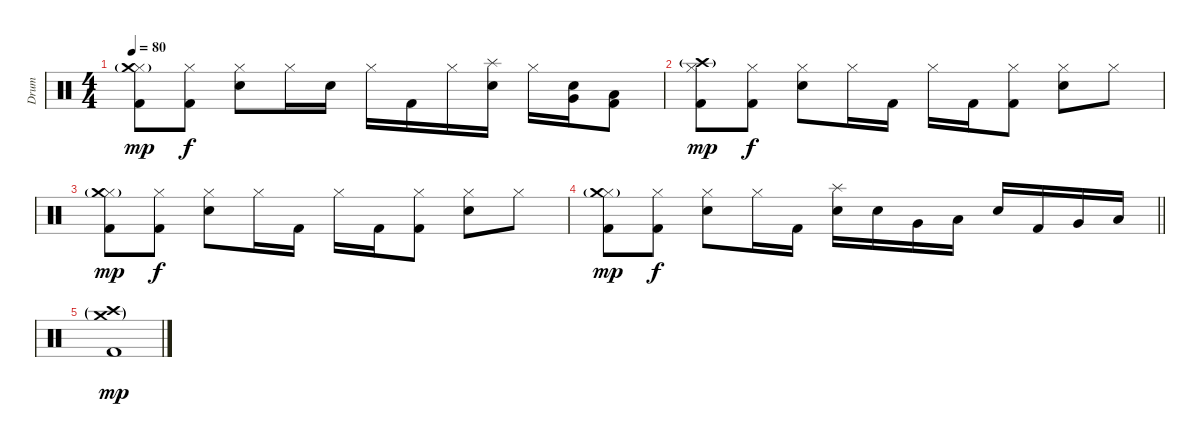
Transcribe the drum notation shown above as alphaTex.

\track ("Drum" "Drum") {instrument percussion}
\staff {score}
\articulation defaults
\ts (4 4)
\tempo 80
\clef neutral
\ks c
("Hi-Hat (closed)" "Kick (hit) 2" "Crash medium (hit)"{g}).8{dy mp} ("Hi-Hat (closed)" "Kick (hit) 2").8{dy f} ("Hi-Hat (closed)" "Electric Snare (hit)").8 "Hi-Hat (closed)".16 "Electric Snare (hit)".16 "Hi-Hat (closed)".16 "Kick (hit) 2".16 "Hi-Hat (closed)".16 ("Splash (hit)" "Electric Snare (hit)").16 "Hi-Hat (closed)".16 ("Very Low Tom (hit)" "Electric Snare (hit)").16 ("Low Floor Tom (hit)" "Kick (hit) 2").8 |
("Hi-Hat (closed)" "Kick (hit) 2" "Crash high (hit)"{g}).8{dy mp} ("Hi-Hat (closed)" "Kick (hit) 2").8{dy f} ("Hi-Hat (closed)" "Electric Snare (hit)").8 "Hi-Hat (closed)".16 "Kick (hit) 2".16 "Hi-Hat (closed)".16 "Kick (hit) 2".16 ("Hi-Hat (closed)" "Kick (hit) 2").8 ("Hi-Hat (closed)" "Electric Snare (hit)").8 "Hi-Hat (closed)".8 |
("Hi-Hat (closed)" "Kick (hit) 2" "Crash medium (hit)"{g}).8{dy mp} ("Hi-Hat (closed)" "Kick (hit) 2").8{dy f} ("Hi-Hat (closed)" "Electric Snare (hit)").8 "Hi-Hat (closed)".16 "Kick (hit) 2".16 "Hi-Hat (closed)".16 "Kick (hit) 2".16 ("Hi-Hat (closed)" "Kick (hit) 2").8 ("Hi-Hat (closed)" "Electric Snare (hit)").8 "Hi-Hat (closed)".8 |
\barLineRight lightlight
("Hi-Hat (closed)" "Kick (hit) 2" "Crash medium (hit)"{g}).8{dy mp} ("Hi-Hat (closed)" "Kick (hit) 2").8{dy f} ("Hi-Hat (closed)" "Electric Snare (hit)").8 "Hi-Hat (closed)".16 "Kick (hit) 2".16 ("Electric Snare (hit)" "Splash (hit)").16 "Electric Snare (hit)".16 "Very Low Tom (hit)".16 "Low Floor Tom (hit)".16 "Electric Snare (hit)".16 "Kick (hit) 2".16 "Very Low Tom (hit)".16 "Low Floor Tom (hit)".16 |
("Crash high (hit)"{g} "Crash medium (hit)"{g} "Kick (hit) 2").1{dy mp}
